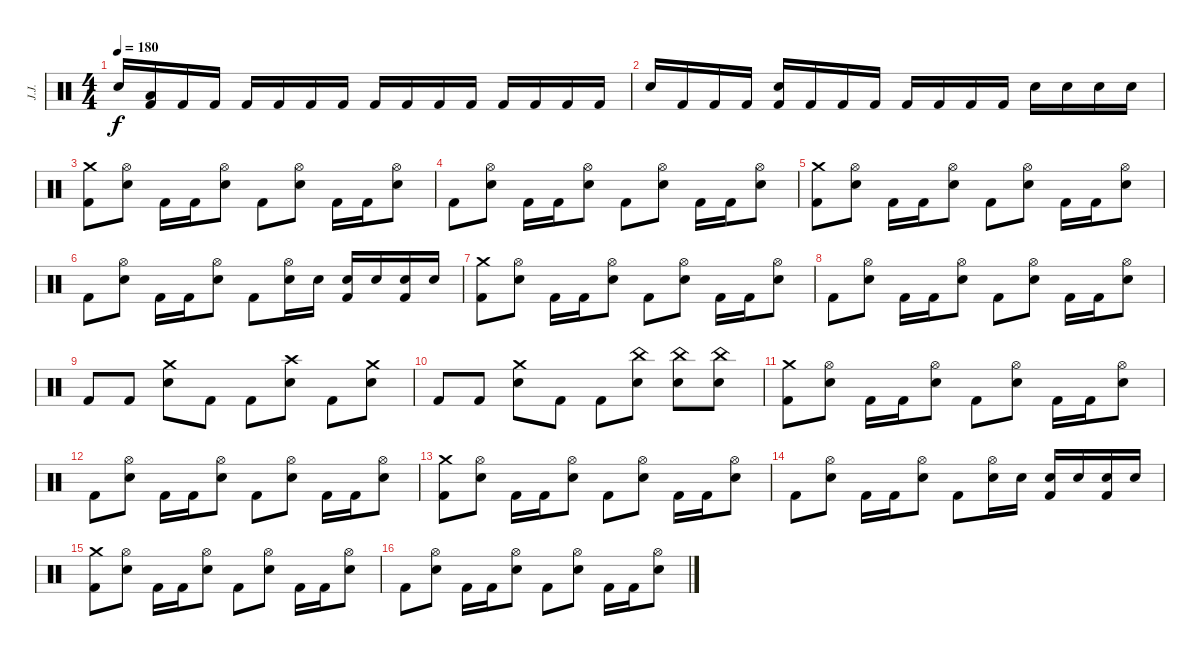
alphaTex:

\track ("J.J." "J.J.") {instrument percussion}
\staff {score}
\articulation defaults
\ts (4 4)
\tempo 180
\clef neutral
\ks c "Electric Snare (hit)".16{dy f}
("Low Floor Tom (hit)" "Kick (hit) 2").16 "Kick (hit) 2".16 "Kick (hit) 2".16 "Kick (hit) 2".16 "Kick (hit) 2".16 "Kick (hit) 2".16 "Kick (hit) 2".16 "Kick (hit) 2".16 "Kick (hit) 2".16 "Kick (hit) 2".16 "Kick (hit) 2".16 "Kick (hit) 2".16 "Kick (hit) 2".16 "Kick (hit) 2".16 "Kick (hit) 2".16 |
"Electric Snare (hit)".16 "Kick (hit) 2".16 "Kick (hit) 2".16 "Kick (hit) 2".16 ("Electric Snare (hit)" "Kick (hit) 2").16 "Kick (hit) 2".16 "Kick (hit) 2".16 "Kick (hit) 2".16 "Kick (hit) 2".16 "Kick (hit) 2".16 "Kick (hit) 2".16 "Kick (hit) 2".16 "Electric Snare (hit)".16 "Electric Snare (hit)".16 "Electric Snare (hit)".16 "Electric Snare (hit)".16 |
("Crash medium (hit)" "Kick (hit) 2").8 ("Hi-Hat (open)" "Electric Snare (hit)").8 "Kick (hit) 2".16 "Kick (hit) 2".16 ("Hi-Hat (open)" "Electric Snare (hit)").8 "Kick (hit) 2".8 ("Hi-Hat (open)" "Electric Snare (hit)").8 "Kick (hit) 2".16 "Kick (hit) 2".16 ("Hi-Hat (open)" "Electric Snare (hit)").8 |
"Kick (hit) 2".8 ("Hi-Hat (open)" "Electric Snare (hit)").8 "Kick (hit) 2".16 "Kick (hit) 2".16 ("Hi-Hat (open)" "Electric Snare (hit)").8 "Kick (hit) 2".8 ("Hi-Hat (open)" "Electric Snare (hit)").8 "Kick (hit) 2".16 "Kick (hit) 2".16 ("Hi-Hat (open)" "Electric Snare (hit)").8 |
("Crash medium (hit)" "Kick (hit) 2").8 ("Hi-Hat (open)" "Electric Snare (hit)").8 "Kick (hit) 2".16 "Kick (hit) 2".16 ("Hi-Hat (open)" "Electric Snare (hit)").8 "Kick (hit) 2".8 ("Hi-Hat (open)" "Electric Snare (hit)").8 "Kick (hit) 2".16 "Kick (hit) 2".16 ("Hi-Hat (open)" "Electric Snare (hit)").8 |
"Kick (hit) 2".8 ("Hi-Hat (open)" "Electric Snare (hit)").8 "Kick (hit) 2".16 "Kick (hit) 2".16 ("Hi-Hat (open)" "Electric Snare (hit)").8 "Kick (hit) 2".8 ("Hi-Hat (open)" "Electric Snare (hit)").16 "Electric Snare (hit)".16 ("Electric Snare (hit)" "Kick (hit) 2").16 "Electric Snare (hit)".16 ("Electric Snare (hit)" "Kick (hit) 2").16 "Electric Snare (hit)".16 |
("Crash medium (hit)" "Kick (hit) 2").8 ("Hi-Hat (open)" "Electric Snare (hit)").8 "Kick (hit) 2".16 "Kick (hit) 2".16 ("Hi-Hat (open)" "Electric Snare (hit)").8 "Kick (hit) 2".8 ("Hi-Hat (open)" "Electric Snare (hit)").8 "Kick (hit) 2".16 "Kick (hit) 2".16 ("Hi-Hat (open)" "Electric Snare (hit)").8 |
"Kick (hit) 2".8 ("Hi-Hat (open)" "Electric Snare (hit)").8 "Kick (hit) 2".16 "Kick (hit) 2".16 ("Hi-Hat (open)" "Electric Snare (hit)").8 "Kick (hit) 2".8 ("Hi-Hat (open)" "Electric Snare (hit)").8 "Kick (hit) 2".16 "Kick (hit) 2".16 ("Hi-Hat (open)" "Electric Snare (hit)").8 |
"Kick (hit) 2".8 "Kick (hit) 2".8 ("Crash medium (hit)" "Electric Snare (hit)").8 "Kick (hit) 2".8 "Kick (hit) 2".8 ("Crash high (hit)" "Electric Snare (hit)").8 "Kick (hit) 2".8 ("Crash medium (hit)" "Electric Snare (hit)").8 |
"Kick (hit) 2".8 "Kick (hit) 2".8 ("Crash medium (hit)" "Electric Snare (hit)").8 "Kick (hit) 2".8 "Kick (hit) 2".8 ("China (hit)" "Electric Snare (hit)").8 ("China (hit)" "Electric Snare (hit)").8 ("China (hit)" "Electric Snare (hit)").8 |
("Crash medium (hit)" "Kick (hit) 2").8 ("Hi-Hat (open)" "Electric Snare (hit)").8 "Kick (hit) 2".16 "Kick (hit) 2".16 ("Hi-Hat (open)" "Electric Snare (hit)").8 "Kick (hit) 2".8 ("Hi-Hat (open)" "Electric Snare (hit)").8 "Kick (hit) 2".16 "Kick (hit) 2".16 ("Hi-Hat (open)" "Electric Snare (hit)").8 |
"Kick (hit) 2".8 ("Hi-Hat (open)" "Electric Snare (hit)").8 "Kick (hit) 2".16 "Kick (hit) 2".16 ("Hi-Hat (open)" "Electric Snare (hit)").8 "Kick (hit) 2".8 ("Hi-Hat (open)" "Electric Snare (hit)").8 "Kick (hit) 2".16 "Kick (hit) 2".16 ("Hi-Hat (open)" "Electric Snare (hit)").8 |
("Crash medium (hit)" "Kick (hit) 2").8 ("Hi-Hat (open)" "Electric Snare (hit)").8 "Kick (hit) 2".16 "Kick (hit) 2".16 ("Hi-Hat (open)" "Electric Snare (hit)").8 "Kick (hit) 2".8 ("Hi-Hat (open)" "Electric Snare (hit)").8 "Kick (hit) 2".16 "Kick (hit) 2".16 ("Hi-Hat (open)" "Electric Snare (hit)").8 |
"Kick (hit) 2".8 ("Hi-Hat (open)" "Electric Snare (hit)").8 "Kick (hit) 2".16 "Kick (hit) 2".16 ("Hi-Hat (open)" "Electric Snare (hit)").8 "Kick (hit) 2".8 ("Hi-Hat (open)" "Electric Snare (hit)").16 "Electric Snare (hit)".16 ("Electric Snare (hit)" "Kick (hit) 2").16 "Electric Snare (hit)".16 ("Electric Snare (hit)" "Kick (hit) 2").16 "Electric Snare (hit)".16 |
("Crash medium (hit)" "Kick (hit) 2").8 ("Hi-Hat (open)" "Electric Snare (hit)").8 "Kick (hit) 2".16 "Kick (hit) 2".16 ("Hi-Hat (open)" "Electric Snare (hit)").8 "Kick (hit) 2".8 ("Hi-Hat (open)" "Electric Snare (hit)").8 "Kick (hit) 2".16 "Kick (hit) 2".16 ("Hi-Hat (open)" "Electric Snare (hit)").8 |
"Kick (hit) 2".8 ("Hi-Hat (open)" "Electric Snare (hit)").8 "Kick (hit) 2".16 "Kick (hit) 2".16 ("Hi-Hat (open)" "Electric Snare (hit)").8 "Kick (hit) 2".8 ("Hi-Hat (open)" "Electric Snare (hit)").8 "Kick (hit) 2".16 "Kick (hit) 2".16 ("Hi-Hat (open)" "Electric Snare (hit)").8
